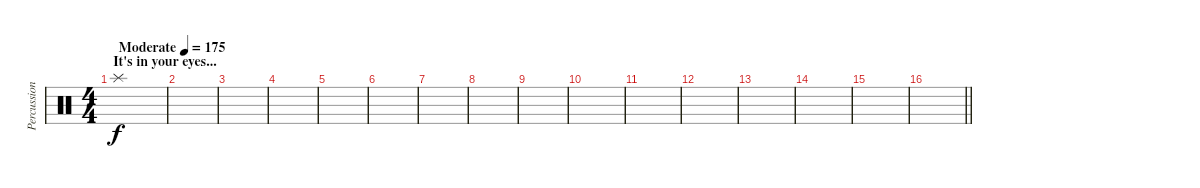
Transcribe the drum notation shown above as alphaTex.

\track ("Percussion" "Percussion") {instrument percussion}
\staff {score}
\articulation defaults
\ts (4 4)
\section ("" "It's in your eyes...")
\tempo (175 "Moderate")
\clef neutral
\ks c "Splash (hit)".1{dy f}
|
|
|
|
|
|
|
|
|
|
|
|
|
|
|
\barLineRight lightlight
